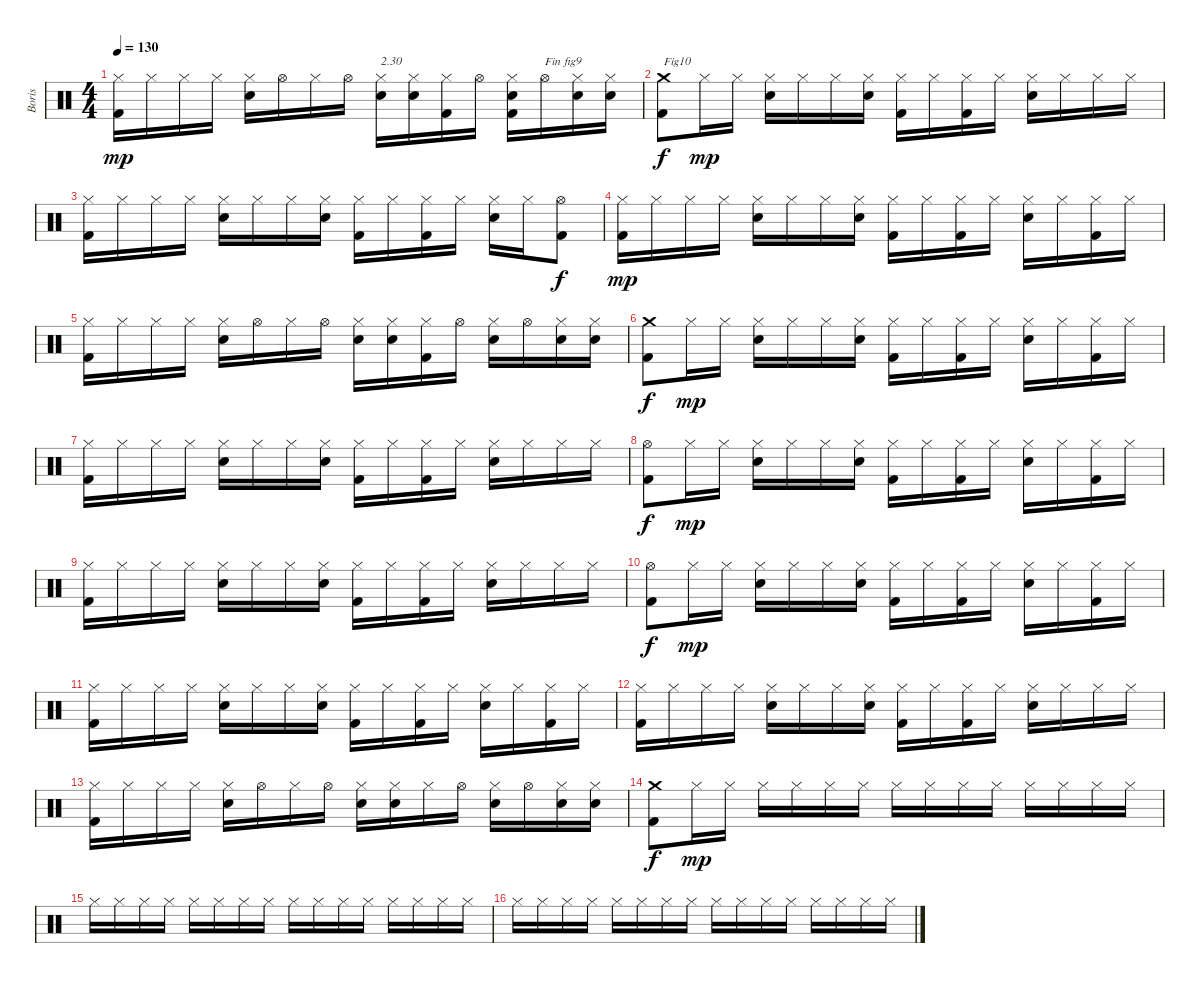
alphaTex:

\track ("Boris" "Boris") {instrument percussion}
\staff {score}
\articulation defaults
\ts (4 4)
\tempo 130
\clef neutral
\ks c
("Kick (hit) 2" "Hi-Hat (closed)").16{dy mp} "Hi-Hat (closed)".16 "Hi-Hat (closed)".16 "Hi-Hat (closed)".16 ("Electric Snare (hit)" "Hi-Hat (closed)").16 "Hi-Hat (open)".16 "Hi-Hat (closed)".16 "Hi-Hat (open)".16 ("Electric Snare (hit)" "Hi-Hat (closed)").16{txt "2.30"} ("Electric Snare (hit)" "Hi-Hat (closed)").16 ("Kick (hit) 2" "Hi-Hat (closed)").16 "Hi-Hat (open)".16 ("Kick (hit) 2" "Electric Snare (hit)" "Hi-Hat (closed)").16 "Hi-Hat (open)".16{txt "Fin fig9"} ("Electric Snare (hit)" "Hi-Hat (closed)").16 ("Electric Snare (hit)" "Hi-Hat (closed)").16 |
("Kick (hit) 2" "Crash medium (hit)").8{txt "Fig10" dy f} "Hi-Hat (closed)".16{dy mp} "Hi-Hat (closed)".16 ("Electric Snare (hit)" "Hi-Hat (closed)").16 "Hi-Hat (closed)".16 "Hi-Hat (closed)".16 ("Electric Snare (hit)" "Hi-Hat (closed)").16 ("Kick (hit) 2" "Hi-Hat (closed)").16 "Hi-Hat (closed)".16 ("Kick (hit) 2" "Hi-Hat (closed)").16 "Hi-Hat (closed)".16 ("Electric Snare (hit)" "Hi-Hat (closed)").16 "Hi-Hat (closed)".16 "Hi-Hat (closed)".16 "Hi-Hat (closed)".16 |
("Kick (hit) 2" "Hi-Hat (closed)").16 "Hi-Hat (closed)".16 "Hi-Hat (closed)".16 "Hi-Hat (closed)".16 ("Electric Snare (hit)" "Hi-Hat (closed)").16 "Hi-Hat (closed)".16 "Hi-Hat (closed)".16 ("Electric Snare (hit)" "Hi-Hat (closed)").16 ("Kick (hit) 2" "Hi-Hat (closed)").16 "Hi-Hat (closed)".16 ("Kick (hit) 2" "Hi-Hat (closed)").16 "Hi-Hat (closed)".16 ("Electric Snare (hit)" "Hi-Hat (closed)").16 "Hi-Hat (closed)".16 ("Kick (hit) 2" "Hi-Hat (open)").8{dy f} |
("Kick (hit) 2" "Hi-Hat (closed)").16{dy mp} "Hi-Hat (closed)".16 "Hi-Hat (closed)".16 "Hi-Hat (closed)".16 ("Electric Snare (hit)" "Hi-Hat (closed)").16 "Hi-Hat (closed)".16 "Hi-Hat (closed)".16 ("Electric Snare (hit)" "Hi-Hat (closed)").16 ("Kick (hit) 2" "Hi-Hat (closed)").16 "Hi-Hat (closed)".16 ("Kick (hit) 2" "Hi-Hat (closed)").16 "Hi-Hat (closed)".16 ("Electric Snare (hit)" "Hi-Hat (closed)").16 "Hi-Hat (closed)".16 ("Kick (hit) 2" "Hi-Hat (closed)").16 "Hi-Hat (closed)".16 |
("Kick (hit) 2" "Hi-Hat (closed)").16 "Hi-Hat (closed)".16 "Hi-Hat (closed)".16 "Hi-Hat (closed)".16 ("Electric Snare (hit)" "Hi-Hat (closed)").16 "Hi-Hat (open)".16 "Hi-Hat (closed)".16 "Hi-Hat (open)".16 ("Electric Snare (hit)" "Hi-Hat (closed)").16 ("Electric Snare (hit)" "Hi-Hat (closed)").16 ("Kick (hit) 2" "Hi-Hat (closed)").16 "Hi-Hat (open)".16 ("Electric Snare (hit)" "Hi-Hat (closed)").16 "Hi-Hat (open)".16 ("Electric Snare (hit)" "Hi-Hat (closed)").16 ("Electric Snare (hit)" "Hi-Hat (closed)").16 |
("Kick (hit) 2" "Crash medium (hit)").8{dy f} "Hi-Hat (closed)".16{dy mp} "Hi-Hat (closed)".16 ("Electric Snare (hit)" "Hi-Hat (closed)").16 "Hi-Hat (closed)".16 "Hi-Hat (closed)".16 ("Electric Snare (hit)" "Hi-Hat (closed)").16 ("Kick (hit) 2" "Hi-Hat (closed)").16 "Hi-Hat (closed)".16 ("Kick (hit) 2" "Hi-Hat (closed)").16 "Hi-Hat (closed)".16 ("Electric Snare (hit)" "Hi-Hat (closed)").16 "Hi-Hat (closed)".16 ("Kick (hit) 2" "Hi-Hat (closed)").16 "Hi-Hat (closed)".16 |
("Kick (hit) 2" "Hi-Hat (closed)").16 "Hi-Hat (closed)".16 "Hi-Hat (closed)".16 "Hi-Hat (closed)".16 ("Electric Snare (hit)" "Hi-Hat (closed)").16 "Hi-Hat (closed)".16 "Hi-Hat (closed)".16 ("Electric Snare (hit)" "Hi-Hat (closed)").16 ("Kick (hit) 2" "Hi-Hat (closed)").16 "Hi-Hat (closed)".16 ("Kick (hit) 2" "Hi-Hat (closed)").16 "Hi-Hat (closed)".16 ("Electric Snare (hit)" "Hi-Hat (closed)").16 "Hi-Hat (closed)".16 "Hi-Hat (closed)".16 "Hi-Hat (closed)".16 |
("Kick (hit) 2" "Hi-Hat (open)").8{dy f} "Hi-Hat (closed)".16{dy mp} "Hi-Hat (closed)".16 ("Electric Snare (hit)" "Hi-Hat (closed)").16 "Hi-Hat (closed)".16 "Hi-Hat (closed)".16 ("Electric Snare (hit)" "Hi-Hat (closed)").16 ("Kick (hit) 2" "Hi-Hat (closed)").16 "Hi-Hat (closed)".16 ("Kick (hit) 2" "Hi-Hat (closed)").16 "Hi-Hat (closed)".16 ("Electric Snare (hit)" "Hi-Hat (closed)").16 "Hi-Hat (closed)".16 ("Kick (hit) 2" "Hi-Hat (closed)").16 "Hi-Hat (closed)".16 |
("Kick (hit) 2" "Hi-Hat (closed)").16 "Hi-Hat (closed)".16 "Hi-Hat (closed)".16 "Hi-Hat (closed)".16 ("Electric Snare (hit)" "Hi-Hat (closed)").16 "Hi-Hat (closed)".16 "Hi-Hat (closed)".16 ("Electric Snare (hit)" "Hi-Hat (closed)").16 ("Kick (hit) 2" "Hi-Hat (closed)").16 "Hi-Hat (closed)".16 ("Kick (hit) 2" "Hi-Hat (closed)").16 "Hi-Hat (closed)".16 ("Electric Snare (hit)" "Hi-Hat (closed)").16 "Hi-Hat (closed)".16 "Hi-Hat (closed)".16 "Hi-Hat (closed)".16 |
("Kick (hit) 2" "Hi-Hat (open)").8{dy f} "Hi-Hat (closed)".16{dy mp} "Hi-Hat (closed)".16 ("Electric Snare (hit)" "Hi-Hat (closed)").16 "Hi-Hat (closed)".16 "Hi-Hat (closed)".16 ("Electric Snare (hit)" "Hi-Hat (closed)").16 ("Kick (hit) 2" "Hi-Hat (closed)").16 "Hi-Hat (closed)".16 ("Kick (hit) 2" "Hi-Hat (closed)").16 "Hi-Hat (closed)".16 ("Electric Snare (hit)" "Hi-Hat (closed)").16 "Hi-Hat (closed)".16 ("Kick (hit) 2" "Hi-Hat (closed)").16 "Hi-Hat (closed)".16 |
("Kick (hit) 2" "Hi-Hat (closed)").16 "Hi-Hat (closed)".16 "Hi-Hat (closed)".16 "Hi-Hat (closed)".16 ("Electric Snare (hit)" "Hi-Hat (closed)").16 "Hi-Hat (closed)".16 "Hi-Hat (closed)".16 ("Electric Snare (hit)" "Hi-Hat (closed)").16 ("Kick (hit) 2" "Hi-Hat (closed)").16 "Hi-Hat (closed)".16 ("Kick (hit) 2" "Hi-Hat (closed)").16 "Hi-Hat (closed)".16 ("Electric Snare (hit)" "Hi-Hat (closed)").16 "Hi-Hat (closed)".16 ("Kick (hit) 2" "Hi-Hat (closed)").16 "Hi-Hat (closed)".16 |
("Kick (hit) 2" "Hi-Hat (closed)").16 "Hi-Hat (closed)".16 "Hi-Hat (closed)".16 "Hi-Hat (closed)".16 ("Electric Snare (hit)" "Hi-Hat (closed)").16 "Hi-Hat (closed)".16 "Hi-Hat (closed)".16 ("Electric Snare (hit)" "Hi-Hat (closed)").16 ("Kick (hit) 2" "Hi-Hat (closed)").16 "Hi-Hat (closed)".16 ("Kick (hit) 2" "Hi-Hat (closed)").16 "Hi-Hat (closed)".16 ("Electric Snare (hit)" "Hi-Hat (closed)").16 "Hi-Hat (closed)".16 "Hi-Hat (closed)".16 "Hi-Hat (closed)".16 |
("Kick (hit) 2" "Hi-Hat (closed)").16 "Hi-Hat (closed)".16 "Hi-Hat (closed)".16 "Hi-Hat (closed)".16 ("Electric Snare (hit)" "Hi-Hat (closed)").16 "Hi-Hat (open)".16 "Hi-Hat (closed)".16 "Hi-Hat (open)".16 ("Electric Snare (hit)" "Hi-Hat (closed)").16 ("Electric Snare (hit)" "Hi-Hat (closed)").16 "Hi-Hat (closed)".16 "Hi-Hat (open)".16 ("Electric Snare (hit)" "Hi-Hat (closed)").16 "Hi-Hat (open)".16 ("Electric Snare (hit)" "Hi-Hat (closed)").16 ("Electric Snare (hit)" "Hi-Hat (closed)").16 |
("Kick (hit) 2" "Crash medium (hit)").8{dy f} "Hi-Hat (closed)".16{dy mp} "Hi-Hat (closed)".16 "Hi-Hat (closed)".16 "Hi-Hat (closed)".16 "Hi-Hat (closed)".16 "Hi-Hat (closed)".16 "Hi-Hat (closed)".16 "Hi-Hat (closed)".16 "Hi-Hat (closed)".16 "Hi-Hat (closed)".16 "Hi-Hat (closed)".16 "Hi-Hat (closed)".16 "Hi-Hat (closed)".16 "Hi-Hat (closed)".16 |
"Hi-Hat (closed)".16 "Hi-Hat (closed)".16 "Hi-Hat (closed)".16 "Hi-Hat (closed)".16 "Hi-Hat (closed)".16 "Hi-Hat (closed)".16 "Hi-Hat (closed)".16 "Hi-Hat (closed)".16 "Hi-Hat (closed)".16 "Hi-Hat (closed)".16 "Hi-Hat (closed)".16 "Hi-Hat (closed)".16 "Hi-Hat (closed)".16 "Hi-Hat (closed)".16 "Hi-Hat (closed)".16 "Hi-Hat (closed)".16 |
"Hi-Hat (closed)".16 "Hi-Hat (closed)".16 "Hi-Hat (closed)".16 "Hi-Hat (closed)".16 "Hi-Hat (closed)".16 "Hi-Hat (closed)".16 "Hi-Hat (closed)".16 "Hi-Hat (closed)".16 "Hi-Hat (closed)".16 "Hi-Hat (closed)".16 "Hi-Hat (closed)".16 "Hi-Hat (closed)".16 "Hi-Hat (closed)".16 "Hi-Hat (closed)".16 "Hi-Hat (closed)".16 "Hi-Hat (closed)".16
